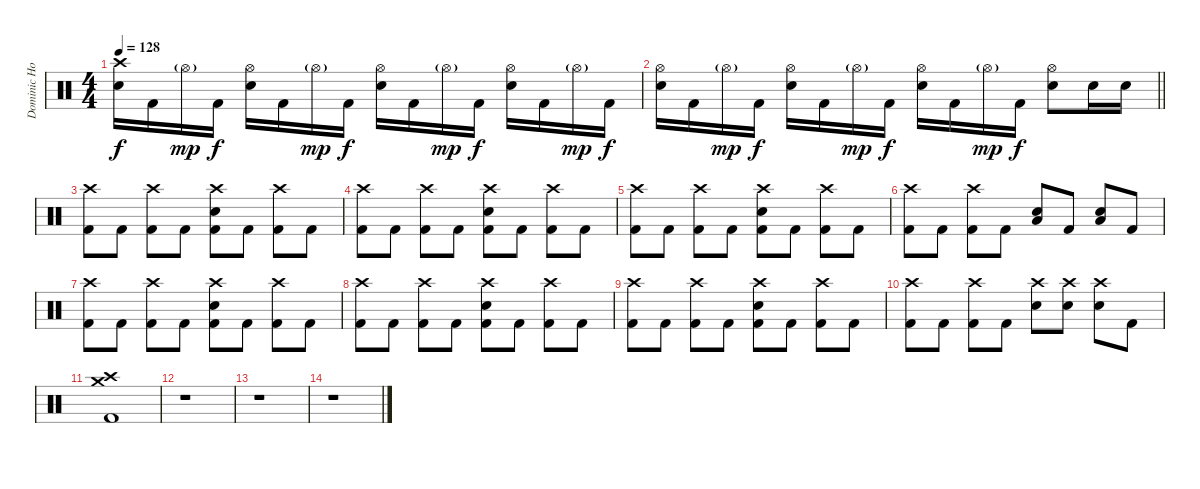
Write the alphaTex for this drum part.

\track ("Dominic Howard (Drums)" "Dominic Ho") {instrument percussion}
\staff {score}
\articulation defaults
\ts (4 4)
\tempo 128
\clef neutral
\ks c
("Crash high (hit)" "Electric Snare (hit)").16{dy f} "Kick (hit) 2".16 "Hi-Hat (open)"{g}.16{dy mp} "Kick (hit) 2".16{dy f} ("Hi-Hat (open)" "Electric Snare (hit)").16 "Kick (hit) 2".16 "Hi-Hat (open)"{g}.16{dy mp} "Kick (hit) 2".16{dy f} ("Hi-Hat (open)" "Electric Snare (hit)").16 "Kick (hit) 2".16 "Hi-Hat (open)"{g}.16{dy mp} "Kick (hit) 2".16{dy f} ("Hi-Hat (open)" "Electric Snare (hit)").16 "Kick (hit) 2".16 "Hi-Hat (open)"{g}.16{dy mp} "Kick (hit) 2".16{dy f} |
\barLineRight lightlight
("Hi-Hat (open)" "Electric Snare (hit)").16 "Kick (hit) 2".16 "Hi-Hat (open)"{g}.16{dy mp} "Kick (hit) 2".16{dy f} ("Hi-Hat (open)" "Electric Snare (hit)").16 "Kick (hit) 2".16 "Hi-Hat (open)"{g}.16{dy mp} "Kick (hit) 2".16{dy f} ("Hi-Hat (open)" "Electric Snare (hit)").16 "Kick (hit) 2".16 "Hi-Hat (open)"{g}.16{dy mp} "Kick (hit) 2".16{dy f} ("Hi-Hat (open)" "Electric Snare (hit)").8 "Electric Snare (hit)".16 "Electric Snare (hit)".16 |
("Crash high (hit)" "Kick (hit) 2").8 "Kick (hit) 2".8 ("Crash high (hit)" "Kick (hit) 2").8 "Kick (hit) 2".8 ("Crash high (hit)" "Electric Snare (hit)" "Kick (hit) 2").8 "Kick (hit) 2".8 ("Crash high (hit)" "Kick (hit) 2").8 "Kick (hit) 2".8 |
("Crash high (hit)" "Kick (hit) 2").8 "Kick (hit) 2".8 ("Crash high (hit)" "Kick (hit) 2").8 "Kick (hit) 2".8 ("Crash high (hit)" "Electric Snare (hit)" "Kick (hit) 2").8 "Kick (hit) 2".8 ("Crash high (hit)" "Kick (hit) 2").8 "Kick (hit) 2".8 |
("Crash high (hit)" "Kick (hit) 2").8 "Kick (hit) 2".8 ("Crash high (hit)" "Kick (hit) 2").8 "Kick (hit) 2".8 ("Crash high (hit)" "Electric Snare (hit)" "Kick (hit) 2").8 "Kick (hit) 2".8 ("Crash high (hit)" "Kick (hit) 2").8 "Kick (hit) 2".8 |
("Crash high (hit)" "Kick (hit) 2").8 "Kick (hit) 2".8 ("Crash high (hit)" "Kick (hit) 2").8 "Kick (hit) 2".8 ("Low Floor Tom (hit)" "Electric Snare (hit)").8 "Kick (hit) 2".8 ("Low Floor Tom (hit)" "Electric Snare (hit)").8 "Kick (hit) 2".8 |
("Crash high (hit)" "Kick (hit) 2").8 "Kick (hit) 2".8 ("Crash high (hit)" "Kick (hit) 2").8 "Kick (hit) 2".8 ("Crash high (hit)" "Electric Snare (hit)" "Kick (hit) 2").8 "Kick (hit) 2".8 ("Crash high (hit)" "Kick (hit) 2").8 "Kick (hit) 2".8 |
("Crash high (hit)" "Kick (hit) 2").8 "Kick (hit) 2".8 ("Crash high (hit)" "Kick (hit) 2").8 "Kick (hit) 2".8 ("Crash high (hit)" "Electric Snare (hit)" "Kick (hit) 2").8 "Kick (hit) 2".8 ("Crash high (hit)" "Kick (hit) 2").8 "Kick (hit) 2".8 |
("Crash high (hit)" "Kick (hit) 2").8 "Kick (hit) 2".8 ("Crash high (hit)" "Kick (hit) 2").8 "Kick (hit) 2".8 ("Crash high (hit)" "Electric Snare (hit)" "Kick (hit) 2").8 "Kick (hit) 2".8 ("Crash high (hit)" "Kick (hit) 2").8 "Kick (hit) 2".8 |
("Crash high (hit)" "Kick (hit) 2").8 "Kick (hit) 2".8 ("Crash high (hit)" "Kick (hit) 2").8 "Kick (hit) 2".8 ("Crash high (hit)" "Electric Snare (hit)").8 ("Crash high (hit)" "Electric Snare (hit)").8 ("Crash high (hit)" "Electric Snare (hit)").8 "Kick (hit) 2".8 |
("Crash high (hit)" "Crash medium (hit)" "Kick (hit) 2").1 |
r.1 |
r.1 |
r.1
